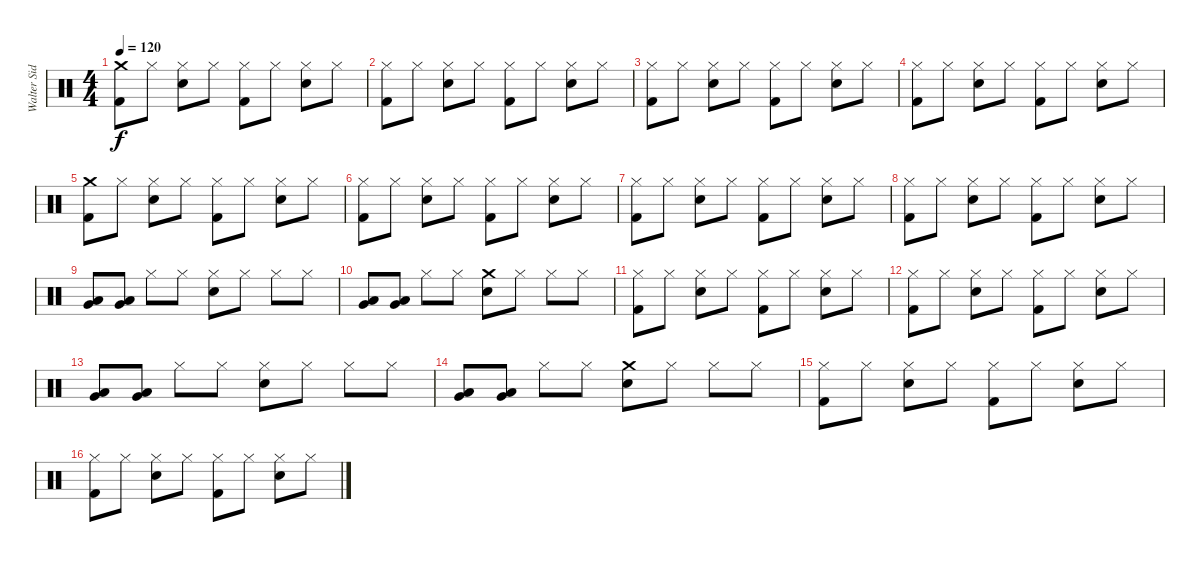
\track ("Walter Sidotti" "Walter Sid") {instrument percussion}
\staff {score}
\articulation defaults
\ts (4 4)
\tempo 120
\clef neutral
\ks c
("Kick (hit) 2" "Crash medium (hit)").8{dy f} "Hi-Hat (closed)".8 ("Electric Snare (hit)" "Hi-Hat (closed)").8 "Hi-Hat (closed)".8 ("Kick (hit) 2" "Hi-Hat (closed)").8 "Hi-Hat (closed)".8 ("Electric Snare (hit)" "Hi-Hat (closed)").8 "Hi-Hat (closed)".8 |
("Kick (hit) 2" "Hi-Hat (closed)").8 "Hi-Hat (closed)".8 ("Electric Snare (hit)" "Hi-Hat (closed)").8 "Hi-Hat (closed)".8 ("Kick (hit) 2" "Hi-Hat (closed)").8 "Hi-Hat (closed)".8 ("Electric Snare (hit)" "Hi-Hat (closed)").8 "Hi-Hat (closed)".8 |
("Kick (hit) 2" "Hi-Hat (closed)").8 "Hi-Hat (closed)".8 ("Electric Snare (hit)" "Hi-Hat (closed)").8 "Hi-Hat (closed)".8 ("Kick (hit) 2" "Hi-Hat (closed)").8 "Hi-Hat (closed)".8 ("Electric Snare (hit)" "Hi-Hat (closed)").8 "Hi-Hat (closed)".8 |
("Kick (hit) 2" "Hi-Hat (closed)").8 "Hi-Hat (closed)".8 ("Electric Snare (hit)" "Hi-Hat (closed)").8 "Hi-Hat (closed)".8 ("Kick (hit) 2" "Hi-Hat (closed)").8 "Hi-Hat (closed)".8 ("Electric Snare (hit)" "Hi-Hat (closed)").8 "Hi-Hat (closed)".8 |
("Kick (hit) 2" "Crash medium (hit)").8 "Hi-Hat (closed)".8 ("Electric Snare (hit)" "Hi-Hat (closed)").8 "Hi-Hat (closed)".8 ("Kick (hit) 2" "Hi-Hat (closed)").8 "Hi-Hat (closed)".8 ("Electric Snare (hit)" "Hi-Hat (closed)").8 "Hi-Hat (closed)".8 |
("Kick (hit) 2" "Hi-Hat (closed)").8 "Hi-Hat (closed)".8 ("Electric Snare (hit)" "Hi-Hat (closed)").8 "Hi-Hat (closed)".8 ("Kick (hit) 2" "Hi-Hat (closed)").8 "Hi-Hat (closed)".8 ("Electric Snare (hit)" "Hi-Hat (closed)").8 "Hi-Hat (closed)".8 |
("Kick (hit) 2" "Hi-Hat (closed)").8 "Hi-Hat (closed)".8 ("Electric Snare (hit)" "Hi-Hat (closed)").8 "Hi-Hat (closed)".8 ("Kick (hit) 2" "Hi-Hat (closed)").8 "Hi-Hat (closed)".8 ("Electric Snare (hit)" "Hi-Hat (closed)").8 "Hi-Hat (closed)".8 |
("Kick (hit) 2" "Hi-Hat (closed)").8 "Hi-Hat (closed)".8 ("Electric Snare (hit)" "Hi-Hat (closed)").8 "Hi-Hat (closed)".8 ("Kick (hit) 2" "Hi-Hat (closed)").8 "Hi-Hat (closed)".8 ("Electric Snare (hit)" "Hi-Hat (closed)").8 "Hi-Hat (closed)".8 |
("Very Low Tom (hit)" "Low Tom (hit)").8 ("Very Low Tom (hit)" "Low Tom (hit)").8 "Hi-Hat (closed)".8 "Hi-Hat (closed)".8 ("Hi-Hat (closed)" "Electric Snare (hit)").8 "Hi-Hat (closed)".8 "Hi-Hat (closed)".8 "Hi-Hat (closed)".8 |
("Very Low Tom (hit)" "Low Tom (hit)").8 ("Very Low Tom (hit)" "Low Tom (hit)").8 "Hi-Hat (closed)".8 "Hi-Hat (closed)".8 ("Crash medium (hit)" "Electric Snare (hit)").8 "Hi-Hat (closed)".8 "Hi-Hat (closed)".8 "Hi-Hat (closed)".8 |
("Kick (hit) 2" "Hi-Hat (closed)").8 "Hi-Hat (closed)".8 ("Electric Snare (hit)" "Hi-Hat (closed)").8 "Hi-Hat (closed)".8 ("Kick (hit) 2" "Hi-Hat (closed)").8 "Hi-Hat (closed)".8 ("Electric Snare (hit)" "Hi-Hat (closed)").8 "Hi-Hat (closed)".8 |
("Kick (hit) 2" "Hi-Hat (closed)").8 "Hi-Hat (closed)".8 ("Electric Snare (hit)" "Hi-Hat (closed)").8 "Hi-Hat (closed)".8 ("Kick (hit) 2" "Hi-Hat (closed)").8 "Hi-Hat (closed)".8 ("Electric Snare (hit)" "Hi-Hat (closed)").8 "Hi-Hat (closed)".8 |
("Very Low Tom (hit)" "Low Tom (hit)").8 ("Very Low Tom (hit)" "Low Tom (hit)").8 "Hi-Hat (closed)".8 "Hi-Hat (closed)".8 ("Hi-Hat (closed)" "Electric Snare (hit)").8 "Hi-Hat (closed)".8 "Hi-Hat (closed)".8 "Hi-Hat (closed)".8 |
("Very Low Tom (hit)" "Low Tom (hit)").8 ("Very Low Tom (hit)" "Low Tom (hit)").8 "Hi-Hat (closed)".8 "Hi-Hat (closed)".8 ("Crash medium (hit)" "Electric Snare (hit)").8 "Hi-Hat (closed)".8 "Hi-Hat (closed)".8 "Hi-Hat (closed)".8 |
("Kick (hit) 2" "Hi-Hat (closed)").8 "Hi-Hat (closed)".8 ("Electric Snare (hit)" "Hi-Hat (closed)").8 "Hi-Hat (closed)".8 ("Kick (hit) 2" "Hi-Hat (closed)").8 "Hi-Hat (closed)".8 ("Electric Snare (hit)" "Hi-Hat (closed)").8 "Hi-Hat (closed)".8 |
("Kick (hit) 2" "Hi-Hat (closed)").8 "Hi-Hat (closed)".8 ("Electric Snare (hit)" "Hi-Hat (closed)").8 "Hi-Hat (closed)".8 ("Kick (hit) 2" "Hi-Hat (closed)").8 "Hi-Hat (closed)".8 ("Electric Snare (hit)" "Hi-Hat (closed)").8 "Hi-Hat (closed)".8
